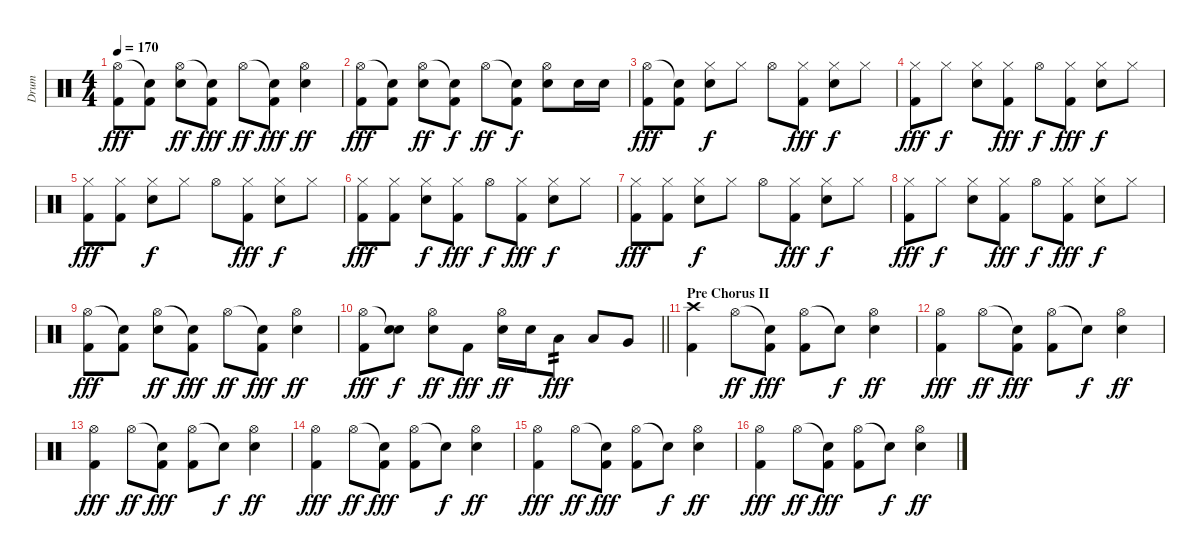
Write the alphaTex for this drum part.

\track ("Drum" "Drum") {instrument percussion}
\staff {score}
\articulation defaults
\ts (4 4)
\tempo 170
\clef neutral
\ks c
("Hi-Hat (open)" "Kick (hit) 2").8{dy fff} ("Snare (hit)"{t} "Kick (hit) 2").8 ("Hi-Hat (open)" "Snare (hit) 2").8{dy ff} ("Snare (hit)"{t} "Kick (hit) 2").8{dy fff} "Hi-Hat (open)".8{dy ff} ("Snare (hit)"{t} "Kick (hit) 2").8{dy fff} ("Hi-Hat (open)" "Snare (hit) 2").4{dy ff} |
("Hi-Hat (open)" "Kick (hit) 2").8{dy fff} ("Snare (hit)"{t} "Kick (hit) 2").8 ("Hi-Hat (open)" "Snare (hit) 2").8{dy ff} ("Snare (hit)"{t} "Kick (hit) 2").8{dy f} "Hi-Hat (open)".8{dy ff} ("Snare (hit)"{t} "Kick (hit) 2").8{dy f} ("Hi-Hat (open)" "Snare (hit) 2").8 "Snare (hit) 2".16 "Snare (hit) 2".16 |
("Hi-Hat (open)" "Kick (hit) 2").8{dy fff} ("Snare (hit)"{t} "Kick (hit) 2").8 ("Hi-Hat (closed)" "Snare (hit) 2").8{dy f} "Hi-Hat (closed)".8 "Hi-Hat (open)".8 ("Hi-Hat (closed)" "Kick (hit) 2").8{dy fff} ("Hi-Hat (closed)" "Snare (hit) 2").8{dy f} "Hi-Hat (closed)".8 |
("Hi-Hat (closed)" "Kick (hit) 2").8{dy fff} "Hi-Hat (closed)".8{dy f} ("Hi-Hat (closed)" "Snare (hit) 2").8 ("Hi-Hat (closed)" "Kick (hit) 2").8{dy fff} "Hi-Hat (open)".8{dy f} ("Hi-Hat (closed)" "Kick (hit) 2").8{dy fff} ("Hi-Hat (closed)" "Snare (hit) 2").8{dy f} "Hi-Hat (closed)".8 |
("Hi-Hat (closed)" "Kick (hit) 2").8{dy fff} ("Hi-Hat (closed)" "Kick (hit) 2").8 ("Hi-Hat (closed)" "Snare (hit) 2").8{dy f} "Hi-Hat (closed)".8 "Hi-Hat (open)".8 ("Hi-Hat (closed)" "Kick (hit) 2").8{dy fff} ("Hi-Hat (closed)" "Snare (hit) 2").8{dy f} "Hi-Hat (closed)".8 |
("Hi-Hat (closed)" "Kick (hit) 2").8{dy fff} ("Hi-Hat (closed)" "Kick (hit) 2").8 ("Hi-Hat (closed)" "Snare (hit) 2").8{dy f} ("Hi-Hat (closed)" "Kick (hit) 2").8{dy fff} "Hi-Hat (open)".8{dy f} ("Hi-Hat (closed)" "Kick (hit) 2").8{dy fff} ("Hi-Hat (closed)" "Snare (hit) 2").8{dy f} "Hi-Hat (closed)".8 |
("Hi-Hat (closed)" "Kick (hit) 2").8{dy fff} ("Hi-Hat (closed)" "Kick (hit) 2").8 ("Hi-Hat (closed)" "Snare (hit) 2").8{dy f} "Hi-Hat (closed)".8 "Hi-Hat (open)".8 ("Hi-Hat (closed)" "Kick (hit) 2").8{dy fff} ("Hi-Hat (closed)" "Snare (hit) 2").8{dy f} "Hi-Hat (closed)".8 |
("Hi-Hat (closed)" "Kick (hit) 2").8{dy fff} "Hi-Hat (closed)".8{dy f} ("Hi-Hat (closed)" "Snare (hit) 2").8 ("Hi-Hat (closed)" "Kick (hit) 2").8{dy fff} "Hi-Hat (open)".8{dy f} ("Hi-Hat (closed)" "Kick (hit) 2").8{dy fff} ("Hi-Hat (closed)" "Snare (hit) 2").8{dy f} "Hi-Hat (closed)".8 |
("Hi-Hat (open)" "Kick (hit) 2").8{dy fff} ("Snare (hit)"{t} "Kick (hit) 2").8 ("Hi-Hat (open)" "Snare (hit) 2").8{dy ff} ("Snare (hit)"{t} "Kick (hit) 2").8{dy fff} "Hi-Hat (open)".8{dy ff} ("Snare (hit)"{t} "Kick (hit) 2").8{dy fff} ("Hi-Hat (open)" "Snare (hit) 2").4{dy ff} |
\barLineRight lightlight
("Hi-Hat (open)" "Kick (hit) 2").8{dy fff} ("Snare (hit)"{t} "Snare (hit) 2").8{dy f} ("Hi-Hat (open)" "Snare (hit) 2").8{dy ff} "Kick (hit) 2".8{dy fff} ("Hi-Hat (open)" "Snare (hit) 2").16{dy ff} "Snare (hit) 2".16 "Low Tom (hit)".8{tp 2 dy fff} "Low Tom (hit)".8 "Very Low Tom (hit)".8 |
\section ("" "Pre Chorus II")
("Crash high (hit)" "Kick (hit) 2").4 "Hi-Hat (open)".8{dy ff} ("Snare (hit)"{t} "Kick (hit) 2").8{dy fff} ("Hi-Hat (open)" "Kick (hit) 2").8 "Snare (hit)"{t}.8{dy f} ("Hi-Hat (open)" "Snare (hit) 2").4{dy ff} |
("Hi-Hat (open)" "Kick (hit) 2").4{dy fff} "Hi-Hat (open)".8{dy ff} ("Snare (hit)"{t} "Kick (hit) 2").8{dy fff} ("Hi-Hat (open)" "Kick (hit) 2").8 "Snare (hit)"{t}.8{dy f} ("Hi-Hat (open)" "Snare (hit) 2").4{dy ff} |
("Hi-Hat (open)" "Kick (hit) 2").4{dy fff} "Hi-Hat (open)".8{dy ff} ("Snare (hit)"{t} "Kick (hit) 2").8{dy fff} ("Hi-Hat (open)" "Kick (hit) 2").8 "Snare (hit)"{t}.8{dy f} ("Hi-Hat (open)" "Snare (hit) 2").4{dy ff} |
("Hi-Hat (open)" "Kick (hit) 2").4{dy fff} "Hi-Hat (open)".8{dy ff} ("Snare (hit)"{t} "Kick (hit) 2").8{dy fff} ("Hi-Hat (open)" "Kick (hit) 2").8 "Snare (hit)"{t}.8{dy f} ("Hi-Hat (open)" "Snare (hit) 2").4{dy ff} |
("Hi-Hat (open)" "Kick (hit) 2").4{dy fff} "Hi-Hat (open)".8{dy ff} ("Snare (hit)"{t} "Kick (hit) 2").8{dy fff} ("Hi-Hat (open)" "Kick (hit) 2").8 "Snare (hit)"{t}.8{dy f} ("Hi-Hat (open)" "Snare (hit) 2").4{dy ff} |
("Hi-Hat (open)" "Kick (hit) 2").4{dy fff} "Hi-Hat (open)".8{dy ff} ("Snare (hit)"{t} "Kick (hit) 2").8{dy fff} ("Hi-Hat (open)" "Kick (hit) 2").8 "Snare (hit)"{t}.8{dy f} ("Hi-Hat (open)" "Snare (hit) 2").4{dy ff}
